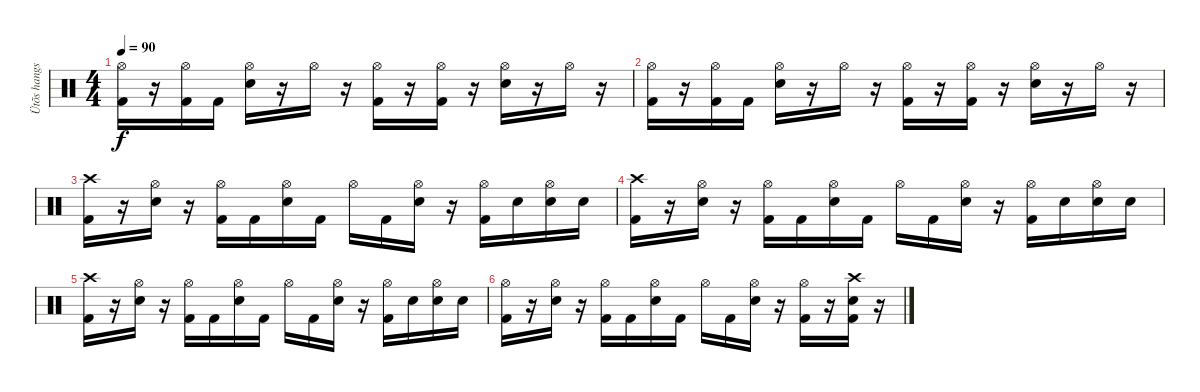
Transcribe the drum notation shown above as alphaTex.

\track ("Ütõs hangszer" "Ütõs hangs") {instrument percussion}
\staff {score}
\articulation defaults
\ts (4 4)
\tempo 90
\clef neutral
\ks c
("Hi-Hat (open)" "Kick (hit) 2").16{dy f} r.16 ("Hi-Hat (open)" "Kick (hit) 2").16 "Kick (hit) 2".16 ("Hi-Hat (open)" "Snare (hit) 2").16 r.16 "Hi-Hat (open)".16 r.16 ("Hi-Hat (open)" "Kick (hit) 2").16 r.16 ("Hi-Hat (open)" "Kick (hit) 2").16 r.16 ("Hi-Hat (open)" "Snare (hit) 2").16 r.16 "Hi-Hat (open)".16 r.16 |
("Hi-Hat (open)" "Kick (hit) 2").16 r.16 ("Hi-Hat (open)" "Kick (hit) 2").16 "Kick (hit) 2".16 ("Hi-Hat (open)" "Snare (hit) 2").16 r.16 "Hi-Hat (open)".16 r.16 ("Hi-Hat (open)" "Kick (hit) 2").16 r.16 ("Hi-Hat (open)" "Kick (hit) 2").16 r.16 ("Hi-Hat (open)" "Snare (hit) 2").16 r.16 "Hi-Hat (open)".16 r.16 |
("Crash high (hit)" "Kick (hit) 2").16 r.16 ("Hi-Hat (open)" "Snare (hit) 2").16 r.16 ("Hi-Hat (open)" "Kick (hit) 2").16 "Kick (hit) 2".16 ("Hi-Hat (open)" "Snare (hit) 2").16 "Kick (hit) 2".16 "Hi-Hat (open)".16 "Kick (hit) 2".16 ("Hi-Hat (open)" "Snare (hit) 2").16 r.16 ("Hi-Hat (open)" "Kick (hit) 2").16 "Snare (hit) 2".16 ("Hi-Hat (open)" "Snare (hit) 2").16 "Snare (hit) 2".16 |
("Crash high (hit)" "Kick (hit) 2").16 r.16 ("Hi-Hat (open)" "Snare (hit) 2").16 r.16 ("Hi-Hat (open)" "Kick (hit) 2").16 "Kick (hit) 2".16 ("Hi-Hat (open)" "Snare (hit) 2").16 "Kick (hit) 2".16 "Hi-Hat (open)".16 "Kick (hit) 2".16 ("Hi-Hat (open)" "Snare (hit) 2").16 r.16 ("Hi-Hat (open)" "Kick (hit) 2").16 "Snare (hit) 2".16 ("Hi-Hat (open)" "Snare (hit) 2").16 "Snare (hit) 2".16 |
("Crash high (hit)" "Kick (hit) 2").16 r.16 ("Hi-Hat (open)" "Snare (hit) 2").16 r.16 ("Hi-Hat (open)" "Kick (hit) 2").16 "Kick (hit) 2".16 ("Hi-Hat (open)" "Snare (hit) 2").16 "Kick (hit) 2".16 "Hi-Hat (open)".16 "Kick (hit) 2".16 ("Hi-Hat (open)" "Snare (hit) 2").16 r.16 ("Hi-Hat (open)" "Kick (hit) 2").16 "Snare (hit) 2".16 ("Hi-Hat (open)" "Snare (hit) 2").16 "Snare (hit) 2".16 |
("Hi-Hat (open)" "Kick (hit) 2").16 r.16 ("Hi-Hat (open)" "Snare (hit) 2").16 r.16 ("Hi-Hat (open)" "Kick (hit) 2").16 "Kick (hit) 2".16 ("Hi-Hat (open)" "Snare (hit) 2").16 "Kick (hit) 2".16 "Hi-Hat (open)".16 "Kick (hit) 2".16 ("Hi-Hat (open)" "Snare (hit) 2").16 r.16 ("Hi-Hat (open)" "Kick (hit) 2").16 r.16 ("Crash high (hit)" "Snare (hit) 2" "Kick (hit) 2").16 r.16
